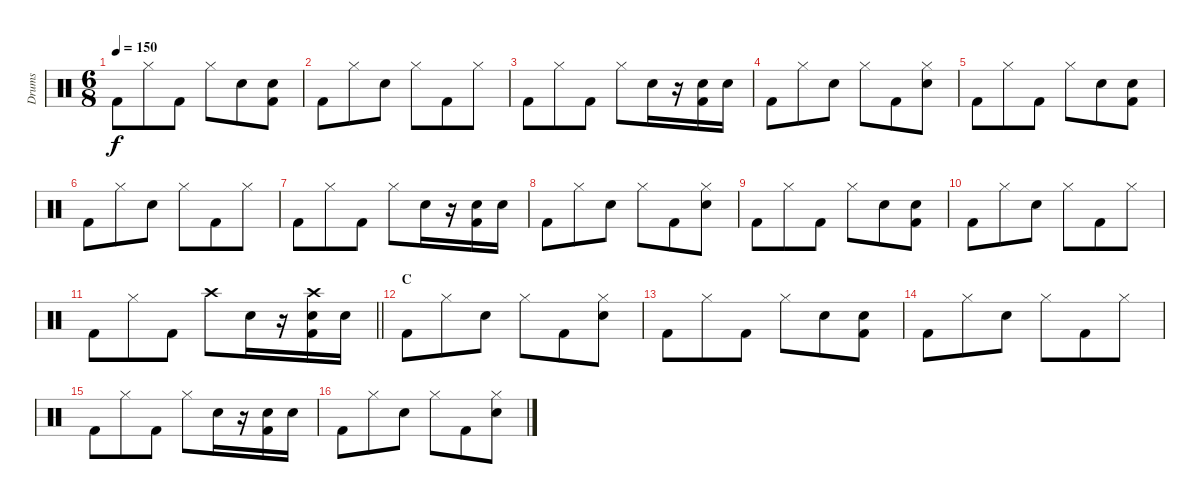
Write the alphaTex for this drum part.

\track ("Drums" "Drums") {mute instrument percussion}
\staff {score}
\articulation defaults
\ts (6 8)
\tempo 150
\clef neutral
\ks c "Kick (hit) 2".8{dy f} "Hi-Hat (closed)".8 "Kick (hit) 2".8 "Hi-Hat (closed)".8 "Electric Snare (hit)".8
("Electric Snare (hit)" "Kick (hit) 2").8 |
"Kick (hit) 2".8 "Hi-Hat (closed)".8 "Electric Snare (hit)".8 "Hi-Hat (closed)".8 "Kick (hit) 2".8 "Hi-Hat (closed)".8 |
"Kick (hit) 2".8 "Hi-Hat (closed)".8 "Kick (hit) 2".8 "Hi-Hat (closed)".8 "Electric Snare (hit)".16 r.16 ("Electric Snare (hit)" "Kick (hit) 2").16 "Electric Snare (hit)".16 |
"Kick (hit) 2".8 "Hi-Hat (closed)".8 "Electric Snare (hit)".8 "Hi-Hat (closed)".8 "Kick (hit) 2".8 ("Hi-Hat (closed)" "Electric Snare (hit)").8 |
"Kick (hit) 2".8 "Hi-Hat (closed)".8 "Kick (hit) 2".8 "Hi-Hat (closed)".8 "Electric Snare (hit)".8 ("Electric Snare (hit)" "Kick (hit) 2").8 |
"Kick (hit) 2".8 "Hi-Hat (closed)".8 "Electric Snare (hit)".8 "Hi-Hat (closed)".8 "Kick (hit) 2".8 "Hi-Hat (closed)".8 |
"Kick (hit) 2".8 "Hi-Hat (closed)".8 "Kick (hit) 2".8 "Hi-Hat (closed)".8 "Electric Snare (hit)".16 r.16 ("Electric Snare (hit)" "Kick (hit) 2").16 "Electric Snare (hit)".16 |
"Kick (hit) 2".8 "Hi-Hat (closed)".8 "Electric Snare (hit)".8 "Hi-Hat (closed)".8 "Kick (hit) 2".8 ("Hi-Hat (closed)" "Electric Snare (hit)").8 |
"Kick (hit) 2".8 "Hi-Hat (closed)".8 "Kick (hit) 2".8 "Hi-Hat (closed)".8 "Electric Snare (hit)".8 ("Electric Snare (hit)" "Kick (hit) 2").8 |
"Kick (hit) 2".8 "Hi-Hat (closed)".8 "Electric Snare (hit)".8 "Hi-Hat (closed)".8 "Kick (hit) 2".8 "Hi-Hat (closed)".8 |
\barLineRight lightlight "Kick (hit) 2".8 "Hi-Hat (closed)".8 "Kick (hit) 2".8 "Crash high (hit)".8 "Electric Snare (hit)".16
r.16 ("Crash high (hit)" "Electric Snare (hit)" "Kick (hit) 2").16 "Electric Snare (hit)".16 |
\section ("" "C")
"Kick (hit) 2".8 "Hi-Hat (closed)".8 "Electric Snare (hit)".8 "Hi-Hat (closed)".8 "Kick (hit) 2".8 ("Hi-Hat (closed)" "Electric Snare (hit)").8 |
"Kick (hit) 2".8 "Hi-Hat (closed)".8 "Kick (hit) 2".8 "Hi-Hat (closed)".8 "Electric Snare (hit)".8 ("Electric Snare (hit)" "Kick (hit) 2").8 |
"Kick (hit) 2".8 "Hi-Hat (closed)".8 "Electric Snare (hit)".8 "Hi-Hat (closed)".8 "Kick (hit) 2".8 "Hi-Hat (closed)".8 |
"Kick (hit) 2".8 "Hi-Hat (closed)".8 "Kick (hit) 2".8 "Hi-Hat (closed)".8 "Electric Snare (hit)".16 r.16 ("Electric Snare (hit)" "Kick (hit) 2").16 "Electric Snare (hit)".16 |
"Kick (hit) 2".8 "Hi-Hat (closed)".8 "Electric Snare (hit)".8 "Hi-Hat (closed)".8 "Kick (hit) 2".8 ("Hi-Hat (closed)" "Electric Snare (hit)").8
